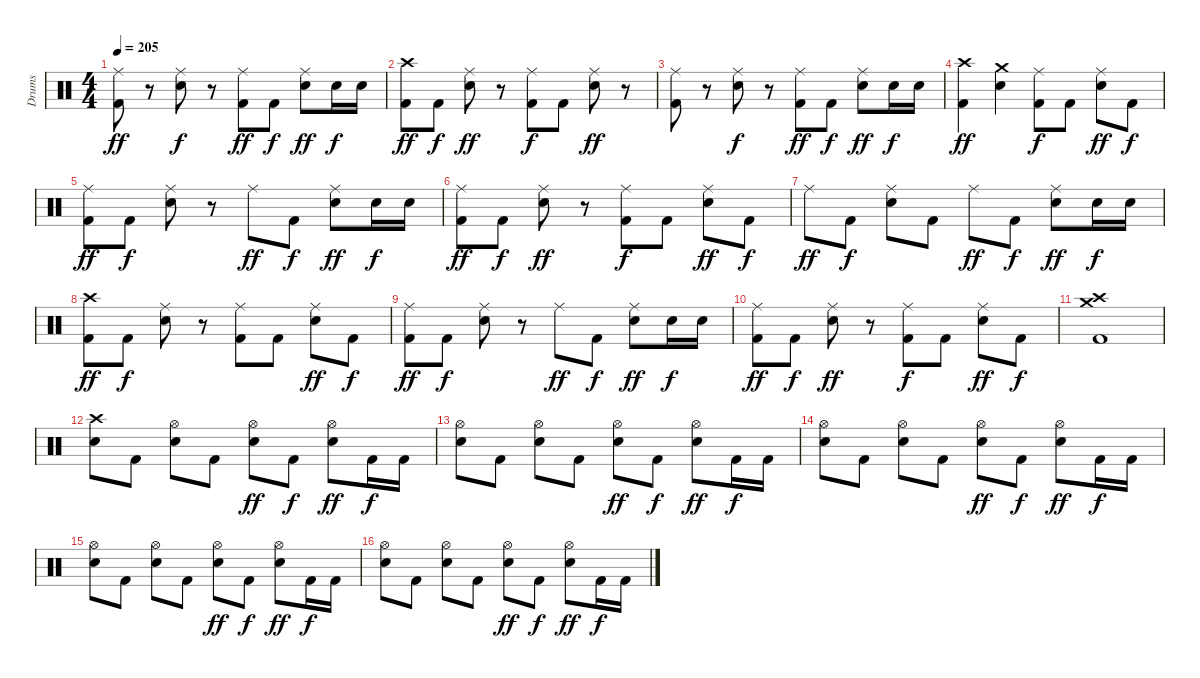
\track ("Drums" "Drums") {instrument percussion}
\staff {score}
\articulation defaults
\ts (4 4)
\tempo 205
\clef neutral
\ks c
("Ride (middle)" "Kick (hit) 2").8{dy ff} r.8 ("Ride (middle)" "Electric Snare (hit)").8{dy f} r.8 ("Ride (middle)" "Kick (hit) 2").8{dy ff} "Kick (hit) 2".8{dy f} ("Ride (middle)" "Electric Snare (hit)").8{dy ff} "Electric Snare (hit)".16{dy f} "Electric Snare (hit)".16 |
("Crash high (hit)" "Kick (hit) 2").8{dy ff} "Kick (hit) 2".8{dy f} ("Ride (middle)" "Electric Snare (hit)").8{dy ff} r.8 ("Ride (middle)" "Kick (hit) 2").8{dy f} "Kick (hit) 2".8 ("Ride (middle)" "Electric Snare (hit)").8{dy ff} r.8 |
("Ride (middle)" "Kick (hit) 2").8 r.8 ("Ride (middle)" "Electric Snare (hit)").8{dy f} r.8 ("Ride (middle)" "Kick (hit) 2").8{dy ff} "Kick (hit) 2".8{dy f} ("Ride (middle)" "Electric Snare (hit)").8{dy ff} "Electric Snare (hit)".16{dy f} "Electric Snare (hit)".16 |
("Crash high (hit)" "Kick (hit) 2").4{dy ff} ("Crash medium (hit)" "Electric Snare (hit)").4 ("Ride (middle)" "Kick (hit) 2").8{dy f} "Kick (hit) 2".8 ("Ride (middle)" "Electric Snare (hit)").8{dy ff} "Kick (hit) 2".8{dy f} |
("Ride (middle)" "Kick (hit) 2").8{dy ff} "Kick (hit) 2".8{dy f} ("Ride (middle)" "Electric Snare (hit)").8 r.8 "Ride (middle)".8{dy ff} "Kick (hit) 2".8{dy f} ("Ride (middle)" "Electric Snare (hit)").8{dy ff} "Electric Snare (hit)".16{dy f} "Electric Snare (hit)".16 |
("Ride (middle)" "Kick (hit) 2").8{dy ff} "Kick (hit) 2".8{dy f} ("Ride (middle)" "Electric Snare (hit)").8{dy ff} r.8 ("Ride (middle)" "Kick (hit) 2").8{dy f} "Kick (hit) 2".8 ("Ride (middle)" "Electric Snare (hit)").8{dy ff} "Kick (hit) 2".8{dy f} |
"Ride (middle)".8{dy ff} "Kick (hit) 2".8{dy f} ("Ride (middle)" "Electric Snare (hit)").8 "Kick (hit) 2".8 "Ride (middle)".8{dy ff} "Kick (hit) 2".8{dy f} ("Ride (middle)" "Electric Snare (hit)").8{dy ff} "Electric Snare (hit)".16{dy f} "Electric Snare (hit)".16 |
("Crash high (hit)" "Kick (hit) 2").8{dy ff} "Kick (hit) 2".8{dy f} ("Ride (middle)" "Electric Snare (hit)").8 r.8 ("Ride (middle)" "Kick (hit) 2").8 "Kick (hit) 2".8 ("Ride (middle)" "Electric Snare (hit)").8{dy ff} "Kick (hit) 2".8{dy f} |
("Ride (middle)" "Kick (hit) 2").8{dy ff} "Kick (hit) 2".8{dy f} ("Ride (middle)" "Electric Snare (hit)").8 r.8 "Ride (middle)".8{dy ff} "Kick (hit) 2".8{dy f} ("Ride (middle)" "Electric Snare (hit)").8{dy ff} "Electric Snare (hit)".16{dy f} "Electric Snare (hit)".16 |
("Ride (middle)" "Kick (hit) 2").8{dy ff} "Kick (hit) 2".8{dy f} ("Ride (middle)" "Electric Snare (hit)").8{dy ff} r.8 ("Ride (middle)" "Kick (hit) 2").8{dy f} "Kick (hit) 2".8 ("Ride (middle)" "Electric Snare (hit)").8{dy ff} "Kick (hit) 2".8{dy f} |
("Crash high (hit)" "Crash medium (hit)" "Kick (hit) 2").1 |
("Crash high (hit)" "Electric Snare (hit)").8 "Kick (hit) 2".8 ("Hi-Hat (open)" "Electric Snare (hit)").8 "Kick (hit) 2".8 ("Hi-Hat (open)" "Electric Snare (hit)").8{dy ff} "Kick (hit) 2".8{dy f} ("Hi-Hat (open)" "Electric Snare (hit)").8{dy ff} "Kick (hit) 2".16{dy f} "Kick (hit) 2".16 |
("Hi-Hat (open)" "Electric Snare (hit)").8 "Kick (hit) 2".8 ("Hi-Hat (open)" "Electric Snare (hit)").8 "Kick (hit) 2".8 ("Hi-Hat (open)" "Electric Snare (hit)").8{dy ff} "Kick (hit) 2".8{dy f} ("Hi-Hat (open)" "Electric Snare (hit)").8{dy ff} "Kick (hit) 2".16{dy f} "Kick (hit) 2".16 |
("Hi-Hat (open)" "Electric Snare (hit)").8 "Kick (hit) 2".8 ("Hi-Hat (open)" "Electric Snare (hit)").8 "Kick (hit) 2".8 ("Hi-Hat (open)" "Electric Snare (hit)").8{dy ff} "Kick (hit) 2".8{dy f} ("Hi-Hat (open)" "Electric Snare (hit)").8{dy ff} "Kick (hit) 2".16{dy f} "Kick (hit) 2".16 |
("Hi-Hat (open)" "Electric Snare (hit)").8 "Kick (hit) 2".8 ("Hi-Hat (open)" "Electric Snare (hit)").8 "Kick (hit) 2".8 ("Hi-Hat (open)" "Electric Snare (hit)").8{dy ff} "Kick (hit) 2".8{dy f} ("Hi-Hat (open)" "Electric Snare (hit)").8{dy ff} "Kick (hit) 2".16{dy f} "Kick (hit) 2".16 |
("Hi-Hat (open)" "Electric Snare (hit)").8 "Kick (hit) 2".8 ("Hi-Hat (open)" "Electric Snare (hit)").8 "Kick (hit) 2".8 ("Hi-Hat (open)" "Electric Snare (hit)").8{dy ff} "Kick (hit) 2".8{dy f} ("Hi-Hat (open)" "Electric Snare (hit)").8{dy ff} "Kick (hit) 2".16{dy f} "Kick (hit) 2".16
